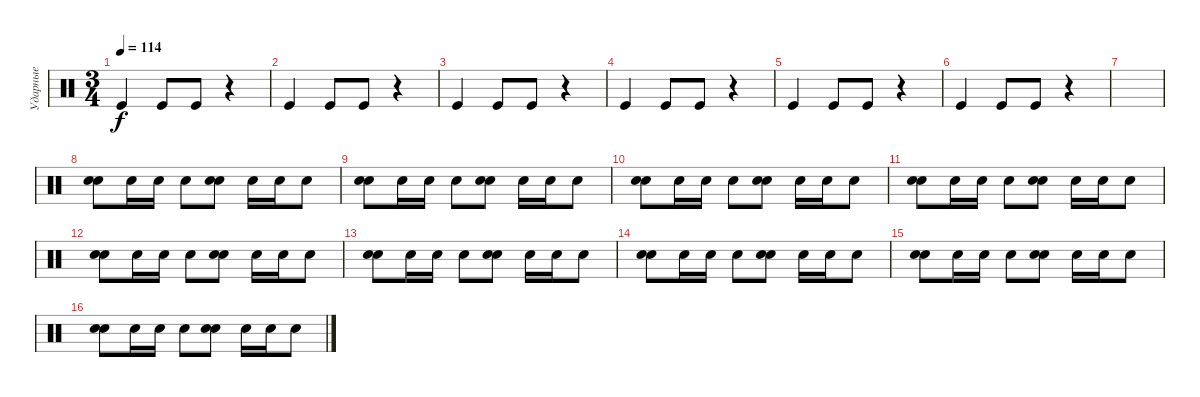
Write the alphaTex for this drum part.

\track ("Ударные" "Ударные") {instrument percussion}
\staff {score}
\articulation defaults
\ts (3 4)
\tempo 114
\clef neutral
\ks c "Kick (hit)".4{dy f} "Kick (hit)".8 "Kick (hit)".8
r.4 |
"Kick (hit)".4 "Kick (hit)".8 "Kick (hit)".8 r.4 |
"Kick (hit)".4 "Kick (hit)".8 "Kick (hit)".8 r.4 |
"Kick (hit)".4 "Kick (hit)".8 "Kick (hit)".8 r.4 |
"Kick (hit)".4 "Kick (hit)".8 "Kick (hit)".8 r.4 |
"Kick (hit)".4 "Kick (hit)".8 "Kick (hit)".8 r.4 |
|
("Snare (hit) 2" "Electric Snare (hit)").8{volume 8} "Electric Snare (hit)".16{volume 10} "Electric Snare (hit)".16 "Electric Snare (hit)".8 ("Snare (hit) 2" "Electric Snare (hit)").8 "Electric Snare (hit)".16 "Electric Snare (hit)".16 "Electric Snare (hit)".8 |
("Snare (hit) 2" "Electric Snare (hit)").8 "Electric Snare (hit)".16 "Electric Snare (hit)".16 "Electric Snare (hit)".8 ("Snare (hit) 2" "Electric Snare (hit)").8 "Electric Snare (hit)".16 "Electric Snare (hit)".16 "Electric Snare (hit)".8 |
("Snare (hit) 2" "Electric Snare (hit)").8 "Electric Snare (hit)".16 "Electric Snare (hit)".16 "Electric Snare (hit)".8 ("Snare (hit) 2" "Electric Snare (hit)").8 "Electric Snare (hit)".16 "Electric Snare (hit)".16 "Electric Snare (hit)".8 |
("Snare (hit) 2" "Electric Snare (hit)").8 "Electric Snare (hit)".16 "Electric Snare (hit)".16 "Electric Snare (hit)".8 ("Snare (hit) 2" "Electric Snare (hit)").8 "Electric Snare (hit)".16 "Electric Snare (hit)".16 "Electric Snare (hit)".8 |
("Snare (hit) 2" "Electric Snare (hit)").8 "Electric Snare (hit)".16 "Electric Snare (hit)".16 "Electric Snare (hit)".8 ("Snare (hit) 2" "Electric Snare (hit)").8 "Electric Snare (hit)".16 "Electric Snare (hit)".16 "Electric Snare (hit)".8 |
("Snare (hit) 2" "Electric Snare (hit)").8 "Electric Snare (hit)".16 "Electric Snare (hit)".16 "Electric Snare (hit)".8 ("Snare (hit) 2" "Electric Snare (hit)").8 "Electric Snare (hit)".16{volume 12} "Electric Snare (hit)".16 "Electric Snare (hit)".8 |
("Snare (hit) 2" "Electric Snare (hit)").8 "Electric Snare (hit)".16 "Electric Snare (hit)".16 "Electric Snare (hit)".8 ("Snare (hit) 2" "Electric Snare (hit)").8 "Electric Snare (hit)".16 "Electric Snare (hit)".16 "Electric Snare (hit)".8 |
("Snare (hit) 2" "Electric Snare (hit)").8 "Electric Snare (hit)".16 "Electric Snare (hit)".16 "Electric Snare (hit)".8 ("Snare (hit) 2" "Electric Snare (hit)").8 "Electric Snare (hit)".16 "Electric Snare (hit)".16 "Electric Snare (hit)".8 |
("Snare (hit) 2" "Electric Snare (hit)").8 "Electric Snare (hit)".16 "Electric Snare (hit)".16 "Electric Snare (hit)".8 ("Snare (hit) 2" "Electric Snare (hit)").8 "Electric Snare (hit)".16 "Electric Snare (hit)".16 "Electric Snare (hit)".8
